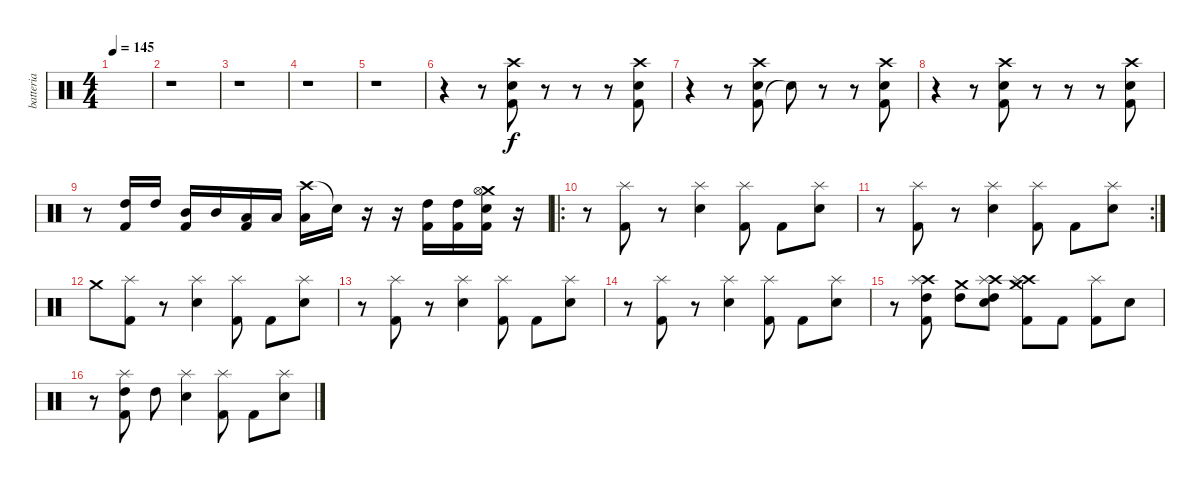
\track ("batteria" "batteria") {instrument percussion}
\staff {score}
\articulation defaults
\ts (4 4)
\tempo 145
\clef neutral
\ks c
|
r.1 |
r.1 |
r.1 |
r.1 |
r.4 r.8 ("Kick (hit) 2" "Electric Snare (hit)" "Crash high (hit)").8 r.8 r.8 r.8 ("Kick (hit) 2" "Electric Snare (hit)" "Crash high (hit)").8 |
r.4 r.8 ("Kick (hit) 2" "Electric Snare (hit)" "Crash high (hit)").8 "Snare (hit)"{t}.8 r.8 r.8 ("Kick (hit) 2" "Electric Snare (hit)" "Crash high (hit)").8 |
r.4 r.8 ("Kick (hit) 2" "Electric Snare (hit)" "Crash high (hit)").8 r.8 r.8 r.8 ("Kick (hit) 2" "Electric Snare (hit)" "Crash high (hit)").8 |
r.8 ("Kick (hit) 2" "High Tom (hit)").16 "High Tom (hit)".16 ("Kick (hit) 2" "Mid Tom (hit)").16 "Mid Tom (hit)".16 ("Kick (hit) 2" "Low Tom (hit)").16 "Low Tom (hit)".16 ("Crash high (hit)" "Low Floor Tom (hit)").16 "Snare (hit)"{t}.16 r.16 r.16 ("High Tom (hit)" "Kick (hit) 2").16 ("High Tom (hit)" "Kick (hit) 2").16 ("Crash medium (hit)" "Kick (hit) 2" "Hi-Hat (open)" "Electric Snare (hit)").16 r.16 |
\ro
r.8 ("Splash (hit)" "Kick (hit) 2").8 r.8 ("Splash (hit)" "Electric Snare (hit)").4 ("Splash (hit)" "Kick (hit) 2").8 "Kick (hit) 2".8 ("Splash (hit)" "Electric Snare (hit)").8 |
\rc 2
r.8 ("Splash (hit)" "Kick (hit) 2").8 r.8 ("Splash (hit)" "Electric Snare (hit)").4 ("Splash (hit)" "Kick (hit) 2").8 "Kick (hit) 2".8 ("Splash (hit)" "Electric Snare (hit)").8 |
"Crash medium (hit)".8 ("Splash (hit)" "Kick (hit) 2").8 r.8 ("Splash (hit)" "Electric Snare (hit)").4 ("Splash (hit)" "Kick (hit) 2").8 "Kick (hit) 2".8 ("Splash (hit)" "Electric Snare (hit)").8 |
r.8 ("Splash (hit)" "Kick (hit) 2").8 r.8 ("Splash (hit)" "Electric Snare (hit)").4 ("Splash (hit)" "Kick (hit) 2").8 "Kick (hit) 2".8 ("Splash (hit)" "Electric Snare (hit)").8 |
r.8 ("Splash (hit)" "Kick (hit) 2").8 r.8 ("Splash (hit)" "Electric Snare (hit)").4 ("Splash (hit)" "Kick (hit) 2").8 "Kick (hit) 2".8 ("Splash (hit)" "Electric Snare (hit)").8 |
r.8 ("Crash high (hit)" "High Tom (hit)" "Splash (hit)" "Kick (hit) 2").8 ("Crash medium (hit)" "High Tom (hit)").8 ("Crash high (hit)" "High Tom (hit)" "Splash (hit)" "Electric Snare (hit)").8 ("Crash medium (hit)" "Crash high (hit)" "Splash (hit)" "Kick (hit) 2").8 "Kick (hit) 2".8 ("Splash (hit)" "Kick (hit) 2").8 "Electric Snare (hit)".8 |
r.8 ("High Tom (hit)" "Splash (hit)" "Kick (hit) 2").8 "High Tom (hit)".8 ("Splash (hit)" "Electric Snare (hit)").4 ("Splash (hit)" "Kick (hit) 2").8 "Kick (hit) 2".8 ("Splash (hit)" "Electric Snare (hit)").8
